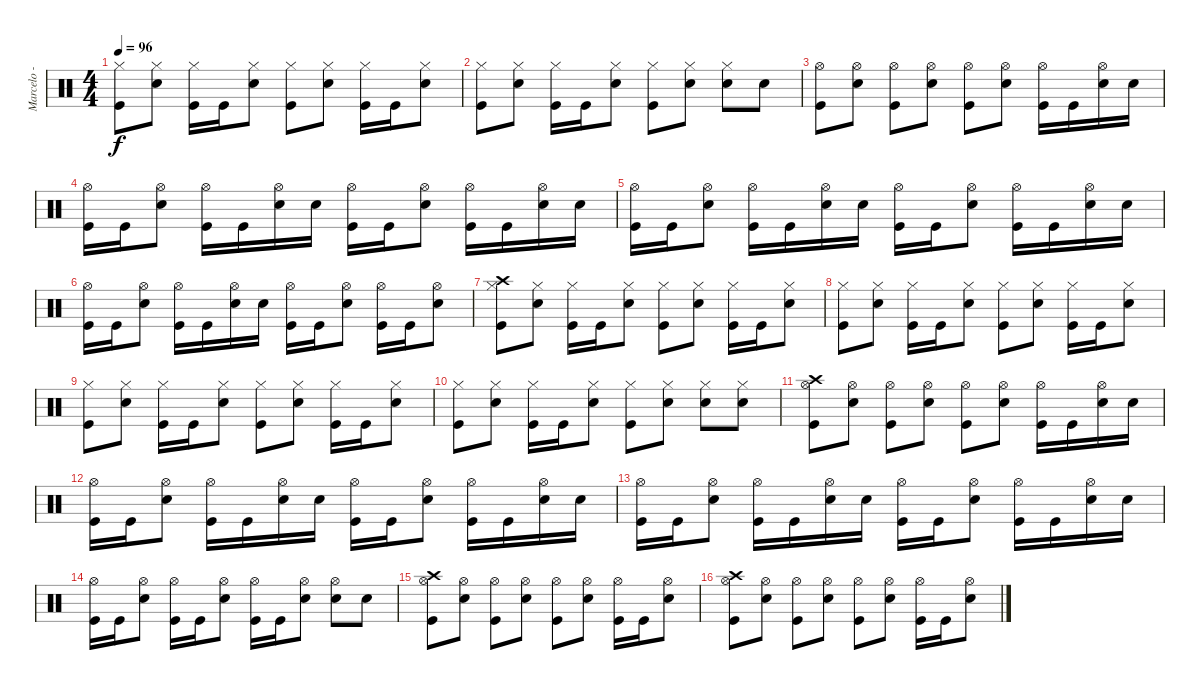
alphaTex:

\track ("Marcelo - Percusión" "Marcelo - ") {instrument percussion}
\staff {score}
\articulation defaults
\ts (4 4)
\tempo 96
\clef neutral
\ks c
("Hi-Hat (closed)" "Kick (hit)").8{dy f} ("Hi-Hat (closed)" "Electric Snare (hit)").8 ("Hi-Hat (closed)" "Kick (hit)").16 "Kick (hit)".16 ("Hi-Hat (closed)" "Electric Snare (hit)").8 ("Hi-Hat (closed)" "Kick (hit)").8 ("Hi-Hat (closed)" "Electric Snare (hit)").8 ("Hi-Hat (closed)" "Kick (hit)").16 "Kick (hit)".16 ("Hi-Hat (closed)" "Electric Snare (hit)").8 |
("Hi-Hat (closed)" "Kick (hit)").8 ("Hi-Hat (closed)" "Electric Snare (hit)").8 ("Hi-Hat (closed)" "Kick (hit)").16 "Kick (hit)".16 ("Hi-Hat (closed)" "Electric Snare (hit)").8 ("Hi-Hat (closed)" "Kick (hit)").8 ("Hi-Hat (closed)" "Electric Snare (hit)").8 ("Hi-Hat (closed)" "Electric Snare (hit)").8 "Electric Snare (hit)".8 |
("Hi-Hat (open)" "Kick (hit)").8 ("Hi-Hat (open)" "Electric Snare (hit)").8 ("Hi-Hat (open)" "Kick (hit)").8 ("Hi-Hat (open)" "Electric Snare (hit)").8 ("Hi-Hat (open)" "Kick (hit)").8 ("Hi-Hat (open)" "Electric Snare (hit)").8 ("Hi-Hat (open)" "Kick (hit)").16 "Kick (hit)".16 ("Hi-Hat (open)" "Electric Snare (hit)").16 "Electric Snare (hit)".16 |
("Hi-Hat (open)" "Kick (hit)").16 "Kick (hit)".16 ("Hi-Hat (open)" "Electric Snare (hit)").8 ("Hi-Hat (open)" "Kick (hit)").16 "Kick (hit)".16 ("Hi-Hat (open)" "Electric Snare (hit)").16 "Electric Snare (hit)".16 ("Hi-Hat (open)" "Kick (hit)").16 "Kick (hit)".16 ("Hi-Hat (open)" "Electric Snare (hit)").8 ("Hi-Hat (open)" "Kick (hit)").16 "Kick (hit)".16 ("Hi-Hat (open)" "Electric Snare (hit)").16 "Electric Snare (hit)".16 |
("Hi-Hat (open)" "Kick (hit)").16 "Kick (hit)".16 ("Hi-Hat (open)" "Electric Snare (hit)").8 ("Hi-Hat (open)" "Kick (hit)").16 "Kick (hit)".16 ("Hi-Hat (open)" "Electric Snare (hit)").16 "Electric Snare (hit)".16 ("Hi-Hat (open)" "Kick (hit)").16 "Kick (hit)".16 ("Hi-Hat (open)" "Electric Snare (hit)").8 ("Hi-Hat (open)" "Kick (hit)").16 "Kick (hit)".16 ("Hi-Hat (open)" "Electric Snare (hit)").16 "Electric Snare (hit)".16 |
("Hi-Hat (open)" "Kick (hit)").16 "Kick (hit)".16 ("Hi-Hat (open)" "Electric Snare (hit)").8 ("Hi-Hat (open)" "Kick (hit)").16 "Kick (hit)".16 ("Hi-Hat (open)" "Electric Snare (hit)").16 "Electric Snare (hit)".16 ("Hi-Hat (open)" "Kick (hit)").16 "Kick (hit)".16 ("Hi-Hat (open)" "Electric Snare (hit)").8 ("Hi-Hat (open)" "Kick (hit)").16 "Kick (hit)".16 ("Hi-Hat (open)" "Electric Snare (hit)").8 |
("Crash high (hit)" "Hi-Hat (closed)" "Kick (hit)").8 ("Hi-Hat (closed)" "Electric Snare (hit)").8 ("Hi-Hat (closed)" "Kick (hit)").16 "Kick (hit)".16 ("Hi-Hat (closed)" "Electric Snare (hit)").8 ("Hi-Hat (closed)" "Kick (hit)").8 ("Hi-Hat (closed)" "Electric Snare (hit)").8 ("Hi-Hat (closed)" "Kick (hit)").16 "Kick (hit)".16 ("Hi-Hat (closed)" "Electric Snare (hit)").8 |
("Hi-Hat (closed)" "Kick (hit)").8 ("Hi-Hat (closed)" "Electric Snare (hit)").8 ("Hi-Hat (closed)" "Kick (hit)").16 "Kick (hit)".16 ("Hi-Hat (closed)" "Electric Snare (hit)").8 ("Hi-Hat (closed)" "Kick (hit)").8 ("Hi-Hat (closed)" "Electric Snare (hit)").8 ("Hi-Hat (closed)" "Kick (hit)").16 "Kick (hit)".16 ("Hi-Hat (closed)" "Electric Snare (hit)").8 |
("Hi-Hat (closed)" "Kick (hit)").8 ("Hi-Hat (closed)" "Electric Snare (hit)").8 ("Hi-Hat (closed)" "Kick (hit)").16 "Kick (hit)".16 ("Hi-Hat (closed)" "Electric Snare (hit)").8 ("Hi-Hat (closed)" "Kick (hit)").8 ("Hi-Hat (closed)" "Electric Snare (hit)").8 ("Hi-Hat (closed)" "Kick (hit)").16 "Kick (hit)".16 ("Hi-Hat (closed)" "Electric Snare (hit)").8 |
("Hi-Hat (closed)" "Kick (hit)").8 ("Hi-Hat (closed)" "Electric Snare (hit)").8 ("Hi-Hat (closed)" "Kick (hit)").16 "Kick (hit)".16 ("Hi-Hat (closed)" "Electric Snare (hit)").8 ("Hi-Hat (closed)" "Kick (hit)").8 ("Hi-Hat (closed)" "Electric Snare (hit)").8 ("Hi-Hat (closed)" "Electric Snare (hit)").8 ("Hi-Hat (closed)" "Electric Snare (hit)").8 |
("Crash high (hit)" "Hi-Hat (open)" "Kick (hit)").8 ("Hi-Hat (open)" "Electric Snare (hit)").8 ("Hi-Hat (open)" "Kick (hit)").8 ("Hi-Hat (open)" "Electric Snare (hit)").8 ("Hi-Hat (open)" "Kick (hit)").8 ("Hi-Hat (open)" "Electric Snare (hit)").8 ("Hi-Hat (open)" "Kick (hit)").16 "Kick (hit)".16 ("Hi-Hat (open)" "Electric Snare (hit)").16 "Electric Snare (hit)".16 |
("Hi-Hat (open)" "Kick (hit)").16 "Kick (hit)".16 ("Hi-Hat (open)" "Electric Snare (hit)").8 ("Hi-Hat (open)" "Kick (hit)").16 "Kick (hit)".16 ("Hi-Hat (open)" "Electric Snare (hit)").16 "Electric Snare (hit)".16 ("Hi-Hat (open)" "Kick (hit)").16 "Kick (hit)".16 ("Hi-Hat (open)" "Electric Snare (hit)").8 ("Hi-Hat (open)" "Kick (hit)").16 "Kick (hit)".16 ("Hi-Hat (open)" "Electric Snare (hit)").16 "Electric Snare (hit)".16 |
("Hi-Hat (open)" "Kick (hit)").16 "Kick (hit)".16 ("Hi-Hat (open)" "Electric Snare (hit)").8 ("Hi-Hat (open)" "Kick (hit)").16 "Kick (hit)".16 ("Hi-Hat (open)" "Electric Snare (hit)").16 "Electric Snare (hit)".16 ("Hi-Hat (open)" "Kick (hit)").16 "Kick (hit)".16 ("Hi-Hat (open)" "Electric Snare (hit)").8 ("Hi-Hat (open)" "Kick (hit)").16 "Kick (hit)".16 ("Hi-Hat (open)" "Electric Snare (hit)").16 "Electric Snare (hit)".16 |
("Hi-Hat (open)" "Kick (hit)").16 "Kick (hit)".16 ("Hi-Hat (open)" "Electric Snare (hit)").8 ("Hi-Hat (open)" "Kick (hit)").16 "Kick (hit)".16 ("Hi-Hat (open)" "Electric Snare (hit)").8 ("Hi-Hat (open)" "Kick (hit)").16 "Kick (hit)".16 ("Hi-Hat (open)" "Electric Snare (hit)").8 ("Hi-Hat (open)" "Electric Snare (hit)").8 "Electric Snare (hit)".8 |
("Crash high (hit)" "Hi-Hat (open)" "Kick (hit)").8 ("Hi-Hat (open)" "Electric Snare (hit)").8 ("Hi-Hat (open)" "Kick (hit)").8 ("Hi-Hat (open)" "Electric Snare (hit)").8 ("Hi-Hat (open)" "Kick (hit)").8 ("Hi-Hat (open)" "Electric Snare (hit)").8 ("Hi-Hat (open)" "Kick (hit)").16 "Kick (hit)".16 ("Hi-Hat (open)" "Electric Snare (hit)").8 |
("Crash high (hit)" "Hi-Hat (open)" "Kick (hit)").8 ("Hi-Hat (open)" "Electric Snare (hit)").8 ("Hi-Hat (open)" "Kick (hit)").8 ("Hi-Hat (open)" "Electric Snare (hit)").8 ("Hi-Hat (open)" "Kick (hit)").8 ("Hi-Hat (open)" "Electric Snare (hit)").8 ("Hi-Hat (open)" "Kick (hit)").16 "Kick (hit)".16 ("Hi-Hat (open)" "Electric Snare (hit)").8
